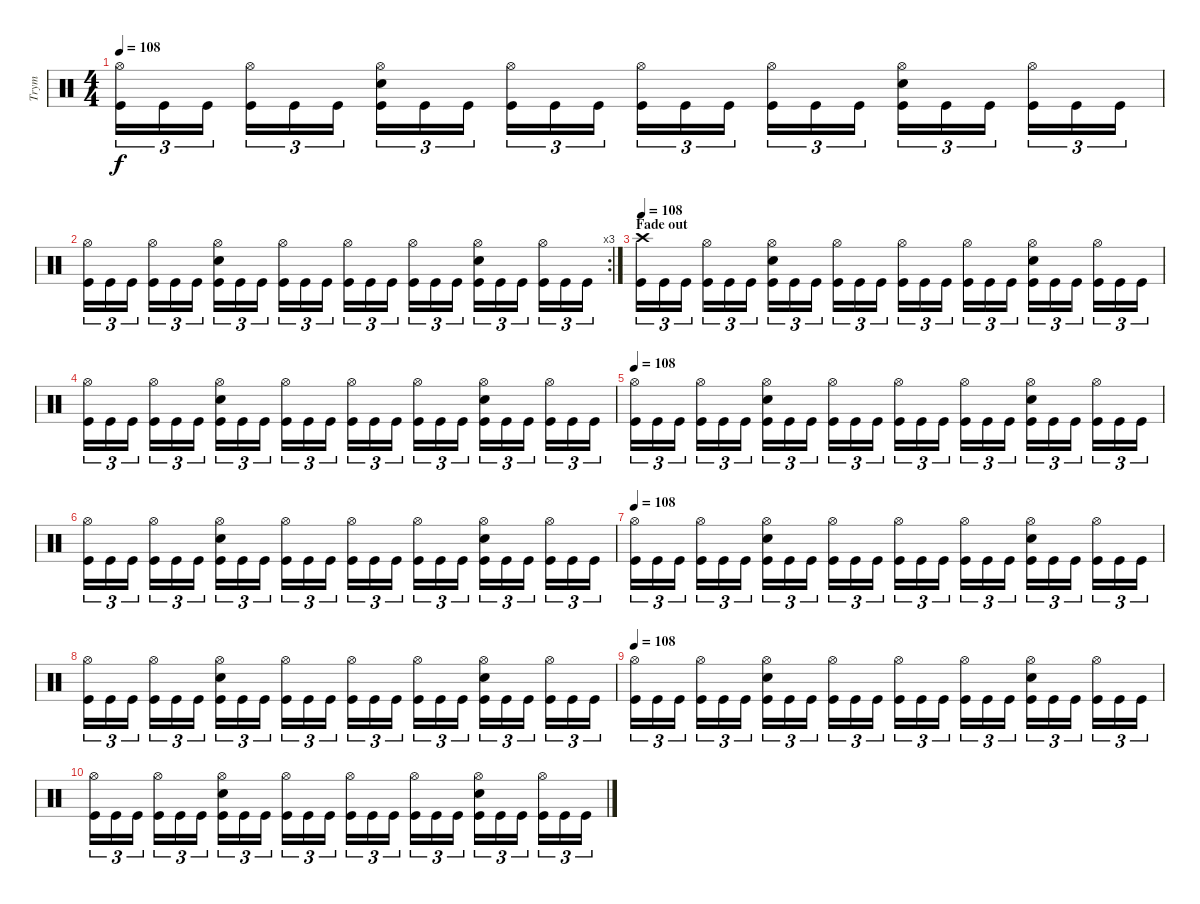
\track ("Trym" "Trym") {instrument percussion}
\staff {score}
\articulation defaults
\ts (4 4)
\tempo 108
\clef neutral
\ks c
("Hi-Hat (open)" "Kick (hit)").16{tu (3 2) dy f} "Kick (hit)".16{tu (3 2)} "Kick (hit)".16{tu (3 2)} ("Hi-Hat (open)" "Kick (hit)").16{tu (3 2)} "Kick (hit)".16{tu (3 2)} "Kick (hit)".16{tu (3 2)} ("Hi-Hat (open)" "Electric Snare (hit)" "Kick (hit)").16{tu (3 2)} "Kick (hit)".16{tu (3 2)} "Kick (hit)".16{tu (3 2)} ("Hi-Hat (open)" "Kick (hit)").16{tu (3 2)} "Kick (hit)".16{tu (3 2)} "Kick (hit)".16{tu (3 2)} ("Hi-Hat (open)" "Kick (hit)").16{tu (3 2)} "Kick (hit)".16{tu (3 2)} "Kick (hit)".16{tu (3 2)} ("Hi-Hat (open)" "Kick (hit)").16{tu (3 2)} "Kick (hit)".16{tu (3 2)} "Kick (hit)".16{tu (3 2)} ("Hi-Hat (open)" "Electric Snare (hit)" "Kick (hit)").16{tu (3 2)} "Kick (hit)".16{tu (3 2)} "Kick (hit)".16{tu (3 2)} ("Hi-Hat (open)" "Kick (hit)").16{tu (3 2)} "Kick (hit)".16{tu (3 2)} "Kick (hit)".16{tu (3 2)} |
\rc 3
("Hi-Hat (open)" "Kick (hit)").16{tu (3 2)} "Kick (hit)".16{tu (3 2)} "Kick (hit)".16{tu (3 2)} ("Hi-Hat (open)" "Kick (hit)").16{tu (3 2)} "Kick (hit)".16{tu (3 2)} "Kick (hit)".16{tu (3 2)} ("Hi-Hat (open)" "Electric Snare (hit)" "Kick (hit)").16{tu (3 2)} "Kick (hit)".16{tu (3 2)} "Kick (hit)".16{tu (3 2)} ("Hi-Hat (open)" "Kick (hit)").16{tu (3 2)} "Kick (hit)".16{tu (3 2)} "Kick (hit)".16{tu (3 2)} ("Hi-Hat (open)" "Kick (hit)").16{tu (3 2)} "Kick (hit)".16{tu (3 2)} "Kick (hit)".16{tu (3 2)} ("Hi-Hat (open)" "Kick (hit)").16{tu (3 2)} "Kick (hit)".16{tu (3 2)} "Kick (hit)".16{tu (3 2)} ("Hi-Hat (open)" "Electric Snare (hit)" "Kick (hit)").16{tu (3 2)} "Kick (hit)".16{tu (3 2)} "Kick (hit)".16{tu (3 2)} ("Hi-Hat (open)" "Kick (hit)").16{tu (3 2)} "Kick (hit)".16{tu (3 2)} "Kick (hit)".16{tu (3 2)} |
\section ("" "Fade out")
\tempo 108
("Crash high (hit)" "Kick (hit)").16{tu (3 2) volume 12} "Kick (hit)".16{tu (3 2)} "Kick (hit)".16{tu (3 2)} ("Hi-Hat (open)" "Kick (hit)").16{tu (3 2)} "Kick (hit)".16{tu (3 2)} "Kick (hit)".16{tu (3 2)} ("Hi-Hat (open)" "Electric Snare (hit)" "Kick (hit)").16{tu (3 2)} "Kick (hit)".16{tu (3 2)} "Kick (hit)".16{tu (3 2)} ("Hi-Hat (open)" "Kick (hit)").16{tu (3 2)} "Kick (hit)".16{tu (3 2)} "Kick (hit)".16{tu (3 2)} ("Hi-Hat (open)" "Kick (hit)").16{tu (3 2)} "Kick (hit)".16{tu (3 2)} "Kick (hit)".16{tu (3 2)} ("Hi-Hat (open)" "Kick (hit)").16{tu (3 2)} "Kick (hit)".16{tu (3 2)} "Kick (hit)".16{tu (3 2)} ("Hi-Hat (open)" "Electric Snare (hit)" "Kick (hit)").16{tu (3 2)} "Kick (hit)".16{tu (3 2)} "Kick (hit)".16{tu (3 2)} ("Hi-Hat (open)" "Kick (hit)").16{tu (3 2)} "Kick (hit)".16{tu (3 2)} "Kick (hit)".16{tu (3 2)} |
("Hi-Hat (open)" "Kick (hit)").16{tu (3 2)} "Kick (hit)".16{tu (3 2)} "Kick (hit)".16{tu (3 2)} ("Hi-Hat (open)" "Kick (hit)").16{tu (3 2)} "Kick (hit)".16{tu (3 2)} "Kick (hit)".16{tu (3 2)} ("Hi-Hat (open)" "Electric Snare (hit)" "Kick (hit)").16{tu (3 2)} "Kick (hit)".16{tu (3 2)} "Kick (hit)".16{tu (3 2)} ("Hi-Hat (open)" "Kick (hit)").16{tu (3 2)} "Kick (hit)".16{tu (3 2)} "Kick (hit)".16{tu (3 2)} ("Hi-Hat (open)" "Kick (hit)").16{tu (3 2)} "Kick (hit)".16{tu (3 2)} "Kick (hit)".16{tu (3 2)} ("Hi-Hat (open)" "Kick (hit)").16{tu (3 2)} "Kick (hit)".16{tu (3 2)} "Kick (hit)".16{tu (3 2)} ("Hi-Hat (open)" "Electric Snare (hit)" "Kick (hit)").16{tu (3 2)} "Kick (hit)".16{tu (3 2)} "Kick (hit)".16{tu (3 2)} ("Hi-Hat (open)" "Kick (hit)").16{tu (3 2)} "Kick (hit)".16{tu (3 2)} "Kick (hit)".16{tu (3 2)} |
\tempo 108
("Hi-Hat (open)" "Kick (hit)").16{tu (3 2) volume 8} "Kick (hit)".16{tu (3 2)} "Kick (hit)".16{tu (3 2)} ("Hi-Hat (open)" "Kick (hit)").16{tu (3 2)} "Kick (hit)".16{tu (3 2)} "Kick (hit)".16{tu (3 2)} ("Hi-Hat (open)" "Electric Snare (hit)" "Kick (hit)").16{tu (3 2)} "Kick (hit)".16{tu (3 2)} "Kick (hit)".16{tu (3 2)} ("Hi-Hat (open)" "Kick (hit)").16{tu (3 2)} "Kick (hit)".16{tu (3 2)} "Kick (hit)".16{tu (3 2)} ("Hi-Hat (open)" "Kick (hit)").16{tu (3 2)} "Kick (hit)".16{tu (3 2)} "Kick (hit)".16{tu (3 2)} ("Hi-Hat (open)" "Kick (hit)").16{tu (3 2)} "Kick (hit)".16{tu (3 2)} "Kick (hit)".16{tu (3 2)} ("Hi-Hat (open)" "Electric Snare (hit)" "Kick (hit)").16{tu (3 2)} "Kick (hit)".16{tu (3 2)} "Kick (hit)".16{tu (3 2)} ("Hi-Hat (open)" "Kick (hit)").16{tu (3 2)} "Kick (hit)".16{tu (3 2)} "Kick (hit)".16{tu (3 2)} |
("Hi-Hat (open)" "Kick (hit)").16{tu (3 2)} "Kick (hit)".16{tu (3 2)} "Kick (hit)".16{tu (3 2)} ("Hi-Hat (open)" "Kick (hit)").16{tu (3 2)} "Kick (hit)".16{tu (3 2)} "Kick (hit)".16{tu (3 2)} ("Hi-Hat (open)" "Electric Snare (hit)" "Kick (hit)").16{tu (3 2)} "Kick (hit)".16{tu (3 2)} "Kick (hit)".16{tu (3 2)} ("Hi-Hat (open)" "Kick (hit)").16{tu (3 2)} "Kick (hit)".16{tu (3 2)} "Kick (hit)".16{tu (3 2)} ("Hi-Hat (open)" "Kick (hit)").16{tu (3 2)} "Kick (hit)".16{tu (3 2)} "Kick (hit)".16{tu (3 2)} ("Hi-Hat (open)" "Kick (hit)").16{tu (3 2)} "Kick (hit)".16{tu (3 2)} "Kick (hit)".16{tu (3 2)} ("Hi-Hat (open)" "Electric Snare (hit)" "Kick (hit)").16{tu (3 2)} "Kick (hit)".16{tu (3 2)} "Kick (hit)".16{tu (3 2)} ("Hi-Hat (open)" "Kick (hit)").16{tu (3 2)} "Kick (hit)".16{tu (3 2)} "Kick (hit)".16{tu (3 2)} |
\tempo 108
("Hi-Hat (open)" "Kick (hit)").16{tu (3 2) volume 4} "Kick (hit)".16{tu (3 2)} "Kick (hit)".16{tu (3 2)} ("Hi-Hat (open)" "Kick (hit)").16{tu (3 2)} "Kick (hit)".16{tu (3 2)} "Kick (hit)".16{tu (3 2)} ("Hi-Hat (open)" "Electric Snare (hit)" "Kick (hit)").16{tu (3 2)} "Kick (hit)".16{tu (3 2)} "Kick (hit)".16{tu (3 2)} ("Hi-Hat (open)" "Kick (hit)").16{tu (3 2)} "Kick (hit)".16{tu (3 2)} "Kick (hit)".16{tu (3 2)} ("Hi-Hat (open)" "Kick (hit)").16{tu (3 2)} "Kick (hit)".16{tu (3 2)} "Kick (hit)".16{tu (3 2)} ("Hi-Hat (open)" "Kick (hit)").16{tu (3 2)} "Kick (hit)".16{tu (3 2)} "Kick (hit)".16{tu (3 2)} ("Hi-Hat (open)" "Electric Snare (hit)" "Kick (hit)").16{tu (3 2)} "Kick (hit)".16{tu (3 2)} "Kick (hit)".16{tu (3 2)} ("Hi-Hat (open)" "Kick (hit)").16{tu (3 2)} "Kick (hit)".16{tu (3 2)} "Kick (hit)".16{tu (3 2)} |
("Hi-Hat (open)" "Kick (hit)").16{tu (3 2)} "Kick (hit)".16{tu (3 2)} "Kick (hit)".16{tu (3 2)} ("Hi-Hat (open)" "Kick (hit)").16{tu (3 2)} "Kick (hit)".16{tu (3 2)} "Kick (hit)".16{tu (3 2)} ("Hi-Hat (open)" "Electric Snare (hit)" "Kick (hit)").16{tu (3 2)} "Kick (hit)".16{tu (3 2)} "Kick (hit)".16{tu (3 2)} ("Hi-Hat (open)" "Kick (hit)").16{tu (3 2)} "Kick (hit)".16{tu (3 2)} "Kick (hit)".16{tu (3 2)} ("Hi-Hat (open)" "Kick (hit)").16{tu (3 2)} "Kick (hit)".16{tu (3 2)} "Kick (hit)".16{tu (3 2)} ("Hi-Hat (open)" "Kick (hit)").16{tu (3 2)} "Kick (hit)".16{tu (3 2)} "Kick (hit)".16{tu (3 2)} ("Hi-Hat (open)" "Electric Snare (hit)" "Kick (hit)").16{tu (3 2)} "Kick (hit)".16{tu (3 2)} "Kick (hit)".16{tu (3 2)} ("Hi-Hat (open)" "Kick (hit)").16{tu (3 2)} "Kick (hit)".16{tu (3 2)} "Kick (hit)".16{tu (3 2)} |
\tempo 108
("Hi-Hat (open)" "Kick (hit)").16{tu (3 2) volume 0} "Kick (hit)".16{tu (3 2)} "Kick (hit)".16{tu (3 2)} ("Hi-Hat (open)" "Kick (hit)").16{tu (3 2)} "Kick (hit)".16{tu (3 2)} "Kick (hit)".16{tu (3 2)} ("Hi-Hat (open)" "Electric Snare (hit)" "Kick (hit)").16{tu (3 2)} "Kick (hit)".16{tu (3 2)} "Kick (hit)".16{tu (3 2)} ("Hi-Hat (open)" "Kick (hit)").16{tu (3 2)} "Kick (hit)".16{tu (3 2)} "Kick (hit)".16{tu (3 2)} ("Hi-Hat (open)" "Kick (hit)").16{tu (3 2)} "Kick (hit)".16{tu (3 2)} "Kick (hit)".16{tu (3 2)} ("Hi-Hat (open)" "Kick (hit)").16{tu (3 2)} "Kick (hit)".16{tu (3 2)} "Kick (hit)".16{tu (3 2)} ("Hi-Hat (open)" "Electric Snare (hit)" "Kick (hit)").16{tu (3 2)} "Kick (hit)".16{tu (3 2)} "Kick (hit)".16{tu (3 2)} ("Hi-Hat (open)" "Kick (hit)").16{tu (3 2)} "Kick (hit)".16{tu (3 2)} "Kick (hit)".16{tu (3 2)} |
("Hi-Hat (open)" "Kick (hit)").16{tu (3 2)} "Kick (hit)".16{tu (3 2)} "Kick (hit)".16{tu (3 2)} ("Hi-Hat (open)" "Kick (hit)").16{tu (3 2)} "Kick (hit)".16{tu (3 2)} "Kick (hit)".16{tu (3 2)} ("Hi-Hat (open)" "Electric Snare (hit)" "Kick (hit)").16{tu (3 2)} "Kick (hit)".16{tu (3 2)} "Kick (hit)".16{tu (3 2)} ("Hi-Hat (open)" "Kick (hit)").16{tu (3 2)} "Kick (hit)".16{tu (3 2)} "Kick (hit)".16{tu (3 2)} ("Hi-Hat (open)" "Kick (hit)").16{tu (3 2)} "Kick (hit)".16{tu (3 2)} "Kick (hit)".16{tu (3 2)} ("Hi-Hat (open)" "Kick (hit)").16{tu (3 2)} "Kick (hit)".16{tu (3 2)} "Kick (hit)".16{tu (3 2)} ("Hi-Hat (open)" "Electric Snare (hit)" "Kick (hit)").16{tu (3 2)} "Kick (hit)".16{tu (3 2)} "Kick (hit)".16{tu (3 2)} ("Hi-Hat (open)" "Kick (hit)").16{tu (3 2)} "Kick (hit)".16{tu (3 2)} "Kick (hit)".16{tu (3 2)}
